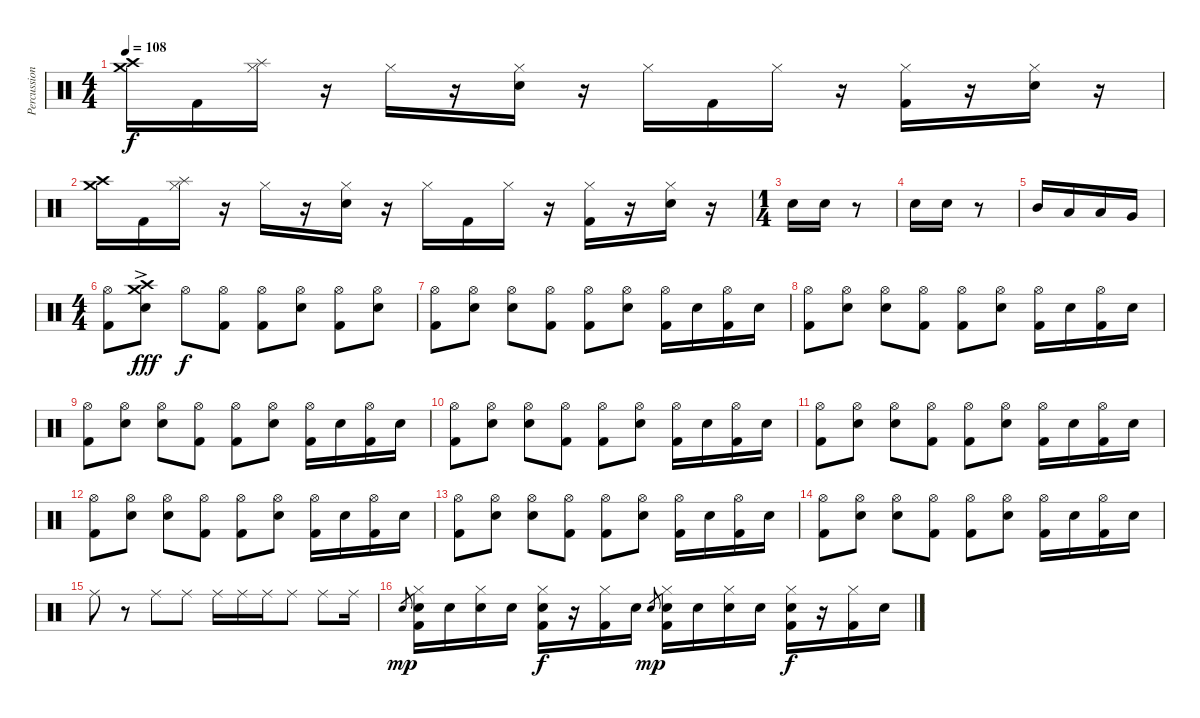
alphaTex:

\track ("Percussions" "Percussion") {instrument percussion}
\staff {score}
\articulation defaults
\ts (4 4)
\tempo 108
\clef neutral
\ks c
("Crash medium (hit)" "Crash high (hit)").16{dy f} "Kick (hit) 2".16 ("Hi-Hat (closed)" "Splash (hit)").16 r.16 "Hi-Hat (closed)".16 r.16 ("Hi-Hat (closed)" "Electric Snare (hit)").16 r.16 "Hi-Hat (closed)".16 "Kick (hit) 2".16 "Hi-Hat (closed)".16 r.16 ("Hi-Hat (closed)" "Kick (hit) 2").16 r.16 ("Hi-Hat (closed)" "Electric Snare (hit)").16 r.16 |
("Crash medium (hit)" "Crash high (hit)").16 "Kick (hit) 2".16 ("Hi-Hat (closed)" "Splash (hit)").16 r.16 "Hi-Hat (closed)".16 r.16 ("Hi-Hat (closed)" "Electric Snare (hit)").16 r.16 "Hi-Hat (closed)".16 "Kick (hit) 2".16 "Hi-Hat (closed)".16 r.16 ("Hi-Hat (closed)" "Kick (hit) 2").16 r.16 ("Hi-Hat (closed)" "Electric Snare (hit)").16 r.16 |
\ts (1 4)
"Electric Snare (hit)".16 "Electric Snare (hit)".16 r.8 |
"Electric Snare (hit)".16 "Electric Snare (hit)".16 r.8 |
"Mid Tom (hit)".16 "Low Tom (hit)".16 "Low Tom (hit)".16 "Very Low Tom (hit)".16 |
\ts (4 4)
("Hi-Hat (open)" "Kick (hit) 2").8{volume 14} ("Crash medium (hit)" "Crash high (hit)"{ac} "Electric Snare (hit)").8{dy fff} "Hi-Hat (open)".8{dy f} ("Hi-Hat (open)" "Kick (hit) 2").8 ("Hi-Hat (open)" "Kick (hit) 2").8 ("Hi-Hat (open)" "Electric Snare (hit)").8 ("Hi-Hat (open)" "Kick (hit) 2").8 ("Hi-Hat (open)" "Electric Snare (hit)").8 |
("Hi-Hat (open)" "Kick (hit) 2").8 ("Hi-Hat (open)" "Electric Snare (hit)").8 ("Hi-Hat (open)" "Snare (hit)").8 ("Hi-Hat (open)" "Kick (hit) 2").8 ("Hi-Hat (open)" "Kick (hit) 2").8 ("Hi-Hat (open)" "Electric Snare (hit)").8 ("Hi-Hat (open)" "Kick (hit) 2").16 "Electric Snare (hit)".16 ("Hi-Hat (open)" "Kick (hit) 2").16 "Electric Snare (hit)".16 |
("Hi-Hat (open)" "Kick (hit) 2").8 ("Hi-Hat (open)" "Electric Snare (hit)").8 ("Hi-Hat (open)" "Snare (hit)").8 ("Hi-Hat (open)" "Kick (hit) 2").8 ("Hi-Hat (open)" "Kick (hit) 2").8 ("Hi-Hat (open)" "Electric Snare (hit)").8 ("Hi-Hat (open)" "Kick (hit) 2").16 "Electric Snare (hit)".16 ("Hi-Hat (open)" "Kick (hit) 2").16 "Electric Snare (hit)".16 |
("Hi-Hat (open)" "Kick (hit) 2").8 ("Hi-Hat (open)" "Electric Snare (hit)").8 ("Hi-Hat (open)" "Snare (hit)").8 ("Hi-Hat (open)" "Kick (hit) 2").8 ("Hi-Hat (open)" "Kick (hit) 2").8 ("Hi-Hat (open)" "Electric Snare (hit)").8 ("Hi-Hat (open)" "Kick (hit) 2").16 "Electric Snare (hit)".16 ("Hi-Hat (open)" "Kick (hit) 2").16 "Electric Snare (hit)".16 |
("Hi-Hat (open)" "Kick (hit) 2").8 ("Hi-Hat (open)" "Electric Snare (hit)").8 ("Hi-Hat (open)" "Snare (hit)").8 ("Hi-Hat (open)" "Kick (hit) 2").8 ("Hi-Hat (open)" "Kick (hit) 2").8 ("Hi-Hat (open)" "Electric Snare (hit)").8 ("Hi-Hat (open)" "Kick (hit) 2").16 "Electric Snare (hit)".16 ("Hi-Hat (open)" "Kick (hit) 2").16 "Electric Snare (hit)".16 |
("Hi-Hat (open)" "Kick (hit) 2").8 ("Hi-Hat (open)" "Electric Snare (hit)").8 ("Hi-Hat (open)" "Snare (hit)").8 ("Hi-Hat (open)" "Kick (hit) 2").8 ("Hi-Hat (open)" "Kick (hit) 2").8 ("Hi-Hat (open)" "Electric Snare (hit)").8 ("Hi-Hat (open)" "Kick (hit) 2").16 "Electric Snare (hit)".16 ("Hi-Hat (open)" "Kick (hit) 2").16 "Electric Snare (hit)".16 |
("Hi-Hat (open)" "Kick (hit) 2").8 ("Hi-Hat (open)" "Electric Snare (hit)").8 ("Hi-Hat (open)" "Snare (hit)").8 ("Hi-Hat (open)" "Kick (hit) 2").8 ("Hi-Hat (open)" "Kick (hit) 2").8 ("Hi-Hat (open)" "Electric Snare (hit)").8 ("Hi-Hat (open)" "Kick (hit) 2").16 "Electric Snare (hit)".16 ("Hi-Hat (open)" "Kick (hit) 2").16 "Electric Snare (hit)".16 |
("Hi-Hat (open)" "Kick (hit) 2").8 ("Hi-Hat (open)" "Electric Snare (hit)").8 ("Hi-Hat (open)" "Snare (hit)").8 ("Hi-Hat (open)" "Kick (hit) 2").8 ("Hi-Hat (open)" "Kick (hit) 2").8 ("Hi-Hat (open)" "Electric Snare (hit)").8 ("Hi-Hat (open)" "Kick (hit) 2").16 "Electric Snare (hit)".16 ("Hi-Hat (open)" "Kick (hit) 2").16 "Electric Snare (hit)".16 |
("Hi-Hat (open)" "Kick (hit) 2").8 ("Hi-Hat (open)" "Electric Snare (hit)").8 ("Hi-Hat (open)" "Snare (hit)").8 ("Hi-Hat (open)" "Kick (hit) 2").8 ("Hi-Hat (open)" "Kick (hit) 2").8 ("Hi-Hat (open)" "Electric Snare (hit)").8 ("Hi-Hat (open)" "Kick (hit) 2").16 "Electric Snare (hit)".16 ("Hi-Hat (open)" "Kick (hit) 2").16 "Electric Snare (hit)".16 |
"Ride (middle)".8 r.8 "Ride (middle)".8 "Ride (middle)".8 "Ride (middle)".16 "Ride (middle)".16 "Ride (middle)".16 "Ride (middle)".8 "Ride (middle)".8 "Ride (middle)".16 |
"Electric Snare (hit)".8{gr dy mp} ("Hi-Hat (closed)" "Electric Snare (hit)" "Kick (hit) 2").16 "Electric Snare (hit)".16 ("Hi-Hat (closed)" "Electric Snare (hit)").16 "Electric Snare (hit)".16 ("Hi-Hat (closed)" "Electric Snare (hit)" "Kick (hit) 2").16{dy f} r.16 ("Hi-Hat (closed)" "Kick (hit) 2").16 "Electric Snare (hit)".16 "Electric Snare (hit)".8{gr dy mp} ("Hi-Hat (closed)" "Electric Snare (hit)" "Kick (hit) 2").16 "Electric Snare (hit)".16 ("Hi-Hat (closed)" "Electric Snare (hit)").16 "Electric Snare (hit)".16 ("Hi-Hat (closed)" "Electric Snare (hit)" "Kick (hit) 2").16{dy f} r.16 ("Hi-Hat (closed)" "Kick (hit) 2").16 "Electric Snare (hit)".16
